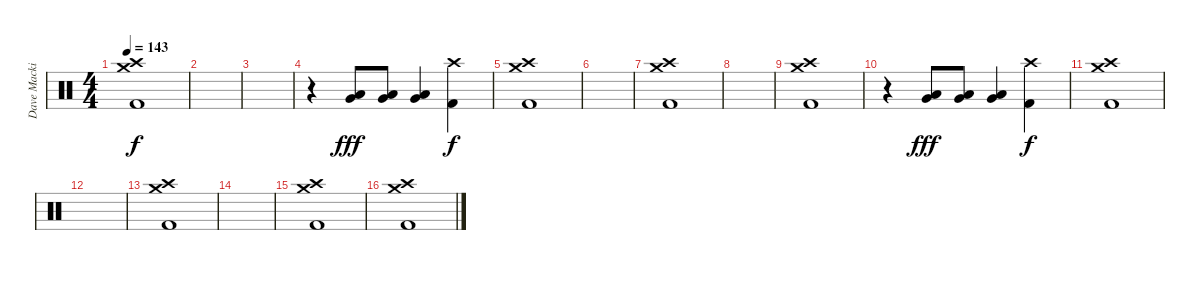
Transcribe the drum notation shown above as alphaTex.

\track ("Dave Mackintosh (Drums)" "Dave Macki") {instrument percussion}
\staff {score}
\articulation defaults
\ts (4 4)
\tempo 143
\clef neutral
\ks c
("Crash medium (hit)" "Crash high (hit)" "Kick (hit) 2").1{dy f} |
|
|
r.4 ("Low Tom (hit)" "Very Low Tom (hit)").8{dy fff} ("Low Tom (hit)" "Very Low Tom (hit)").8 ("Low Tom (hit)" "Very Low Tom (hit)").4 ("Crash high (hit)" "Kick (hit) 2").4{dy f} |
("Crash medium (hit)" "Crash high (hit)" "Kick (hit) 2").1 |
|
("Crash medium (hit)" "Crash high (hit)" "Kick (hit) 2").1 |
|
("Crash medium (hit)" "Crash high (hit)" "Kick (hit) 2").1 |
r.4 ("Low Tom (hit)" "Very Low Tom (hit)").8{dy fff} ("Low Tom (hit)" "Very Low Tom (hit)").8 ("Low Tom (hit)" "Very Low Tom (hit)").4 ("Crash high (hit)" "Kick (hit) 2").4{dy f} |
("Crash medium (hit)" "Crash high (hit)" "Kick (hit) 2").1 |
|
("Crash medium (hit)" "Crash high (hit)" "Kick (hit) 2").1 |
|
("Crash medium (hit)" "Crash high (hit)" "Kick (hit) 2").1 |
("Crash medium (hit)" "Crash high (hit)" "Kick (hit) 2").1
